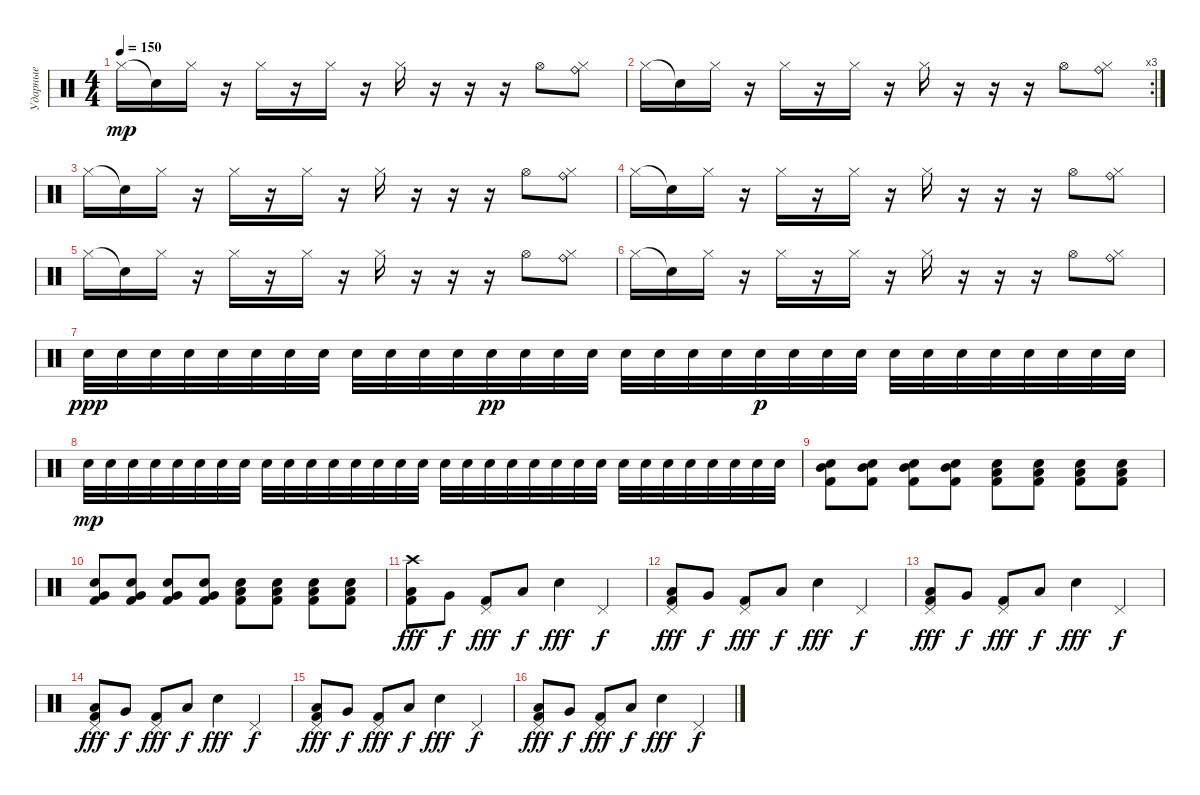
\track ("Ударные" "Ударные") {instrument percussion}
\staff {score}
\articulation defaults
\ts (4 4)
\tempo 150
\clef neutral
\ks c "Hi-Hat (closed)".16{dy mp} "Snare (hit)"{t}.16 "Hi-Hat (closed)".16
r.16 "Hi-Hat (closed)".16 r.16 "Hi-Hat (closed)".16 r.16 "Hi-Hat (closed)".16 r.16 r.16 r.16 "Hi-Hat (open)".8 ("Ride (bell)" "Hi-Hat (closed)").8 |
\rc 3 "Hi-Hat (closed)".16 "Snare (hit)"{t}.16 "Hi-Hat (closed)".16
r.16 "Hi-Hat (closed)".16 r.16 "Hi-Hat (closed)".16 r.16 "Hi-Hat (closed)".16 r.16 r.16 r.16 "Hi-Hat (open)".8 ("Ride (bell)" "Hi-Hat (closed)").8 |
"Hi-Hat (closed)".16 "Snare (hit)"{t}.16 "Hi-Hat (closed)".16 r.16 "Hi-Hat (closed)".16 r.16 "Hi-Hat (closed)".16 r.16 "Hi-Hat (closed)".16 r.16 r.16 r.16 "Hi-Hat (open)".8 ("Ride (bell)" "Hi-Hat (closed)").8 |
"Hi-Hat (closed)".16 "Snare (hit)"{t}.16 "Hi-Hat (closed)".16 r.16 "Hi-Hat (closed)".16 r.16 "Hi-Hat (closed)".16 r.16 "Hi-Hat (closed)".16 r.16 r.16 r.16 "Hi-Hat (open)".8 ("Ride (bell)" "Hi-Hat (closed)").8 |
"Hi-Hat (closed)".16 "Snare (hit)"{t}.16 "Hi-Hat (closed)".16 r.16 "Hi-Hat (closed)".16 r.16 "Hi-Hat (closed)".16 r.16 "Hi-Hat (closed)".16 r.16 r.16 r.16 "Hi-Hat (open)".8 ("Ride (bell)" "Hi-Hat (closed)").8 |
"Hi-Hat (closed)".16 "Snare (hit)"{t}.16 "Hi-Hat (closed)".16 r.16 "Hi-Hat (closed)".16 r.16 "Hi-Hat (closed)".16 r.16 "Hi-Hat (closed)".16 r.16 r.16 r.16 "Hi-Hat (open)".8 ("Ride (bell)" "Hi-Hat (closed)").8 |
"Electric Snare (hit)".32{dy ppp} "Electric Snare (hit)".32 "Electric Snare (hit)".32 "Electric Snare (hit)".32 "Electric Snare (hit)".32 "Electric Snare (hit)".32 "Electric Snare (hit)".32 "Electric Snare (hit)".32 "Electric Snare (hit)".32 "Electric Snare (hit)".32 "Electric Snare (hit)".32 "Electric Snare (hit)".32 "Electric Snare (hit)".32{dy pp} "Electric Snare (hit)".32 "Electric Snare (hit)".32 "Electric Snare (hit)".32 "Electric Snare (hit)".32 "Electric Snare (hit)".32 "Electric Snare (hit)".32 "Electric Snare (hit)".32 "Electric Snare (hit)".32{dy p} "Electric Snare (hit)".32 "Electric Snare (hit)".32 "Electric Snare (hit)".32 "Electric Snare (hit)".32 "Electric Snare (hit)".32 "Electric Snare (hit)".32 "Electric Snare (hit)".32 "Electric Snare (hit)".32 "Electric Snare (hit)".32 "Electric Snare (hit)".32 "Electric Snare (hit)".32 |
"Electric Snare (hit)".32{dy mp} "Electric Snare (hit)".32 "Electric Snare (hit)".32 "Electric Snare (hit)".32 "Electric Snare (hit)".32 "Electric Snare (hit)".32 "Electric Snare (hit)".32 "Electric Snare (hit)".32 "Electric Snare (hit)".32 "Electric Snare (hit)".32 "Electric Snare (hit)".32 "Electric Snare (hit)".32 "Electric Snare (hit)".32 "Electric Snare (hit)".32 "Electric Snare (hit)".32 "Electric Snare (hit)".32 "Electric Snare (hit)".32 "Electric Snare (hit)".32 "Electric Snare (hit)".32 "Electric Snare (hit)".32 "Electric Snare (hit)".32 "Electric Snare (hit)".32 "Electric Snare (hit)".32 "Electric Snare (hit)".32 "Electric Snare (hit)".32 "Electric Snare (hit)".32 "Electric Snare (hit)".32 "Electric Snare (hit)".32 "Electric Snare (hit)".32 "Electric Snare (hit)".32 "Electric Snare (hit)".32 "Electric Snare (hit)".32 |
("Electric Snare (hit)" "Kick (hit) 2" "Mid Tom (hit)").8 ("Electric Snare (hit)" "Kick (hit) 2" "Mid Tom (hit)").8 ("Electric Snare (hit)" "Kick (hit) 2" "Mid Tom (hit)").8 ("Electric Snare (hit)" "Kick (hit) 2" "Mid Tom (hit)").8 ("Electric Snare (hit)" "Kick (hit) 2" "Low Tom (hit)").8 ("Electric Snare (hit)" "Kick (hit) 2" "Low Tom (hit)").8 ("Electric Snare (hit)" "Kick (hit) 2" "Low Tom (hit)").8 ("Electric Snare (hit)" "Kick (hit) 2" "Low Tom (hit)").8 |
("Electric Snare (hit)" "Kick (hit) 2" "Very Low Tom (hit)").8 ("Electric Snare (hit)" "Kick (hit) 2" "Very Low Tom (hit)").8 ("Electric Snare (hit)" "Kick (hit) 2" "Very Low Tom (hit)").8 ("Electric Snare (hit)" "Kick (hit) 2" "Very Low Tom (hit)").8 ("Electric Snare (hit)" "Kick (hit) 2" "Low Floor Tom (hit)").8 ("Electric Snare (hit)" "Kick (hit) 2" "Low Floor Tom (hit)").8 ("Electric Snare (hit)" "Kick (hit) 2" "Low Floor Tom (hit)").8 ("Electric Snare (hit)" "Kick (hit) 2" "Low Floor Tom (hit)").8 |
("Crash high (hit)" "Kick (hit) 2" "Low Tom (hit)").8{dy fff} "Very Low Tom (hit)".8{dy f} ("Pedal Hi-Hat (hit)" "Kick (hit) 2").8{dy fff} "Low Floor Tom (hit)".8{dy f} "Electric Snare (hit)".4{dy fff} "Pedal Hi-Hat (hit)".4{dy f} |
("Pedal Hi-Hat (hit)" "Kick (hit) 2" "Low Tom (hit)").8{dy fff} "Very Low Tom (hit)".8{dy f} ("Pedal Hi-Hat (hit)" "Kick (hit) 2").8{dy fff} "Low Floor Tom (hit)".8{dy f} "Electric Snare (hit)".4{dy fff} "Pedal Hi-Hat (hit)".4{dy f} |
("Pedal Hi-Hat (hit)" "Kick (hit) 2" "Low Tom (hit)").8{dy fff} "Very Low Tom (hit)".8{dy f} ("Pedal Hi-Hat (hit)" "Kick (hit) 2").8{dy fff} "Low Floor Tom (hit)".8{dy f} "Electric Snare (hit)".4{dy fff} "Pedal Hi-Hat (hit)".4{dy f} |
("Pedal Hi-Hat (hit)" "Kick (hit) 2" "Low Tom (hit)").8{dy fff} "Very Low Tom (hit)".8{dy f} ("Pedal Hi-Hat (hit)" "Kick (hit) 2").8{dy fff} "Low Floor Tom (hit)".8{dy f} "Electric Snare (hit)".4{dy fff} "Pedal Hi-Hat (hit)".4{dy f} |
("Pedal Hi-Hat (hit)" "Kick (hit) 2" "Low Tom (hit)").8{dy fff} "Very Low Tom (hit)".8{dy f} ("Pedal Hi-Hat (hit)" "Kick (hit) 2").8{dy fff} "Low Floor Tom (hit)".8{dy f} "Electric Snare (hit)".4{dy fff} "Pedal Hi-Hat (hit)".4{dy f} |
("Pedal Hi-Hat (hit)" "Kick (hit) 2" "Low Tom (hit)").8{dy fff} "Very Low Tom (hit)".8{dy f} ("Pedal Hi-Hat (hit)" "Kick (hit) 2").8{dy fff} "Low Floor Tom (hit)".8{dy f} "Electric Snare (hit)".4{dy fff} "Pedal Hi-Hat (hit)".4{dy f}
